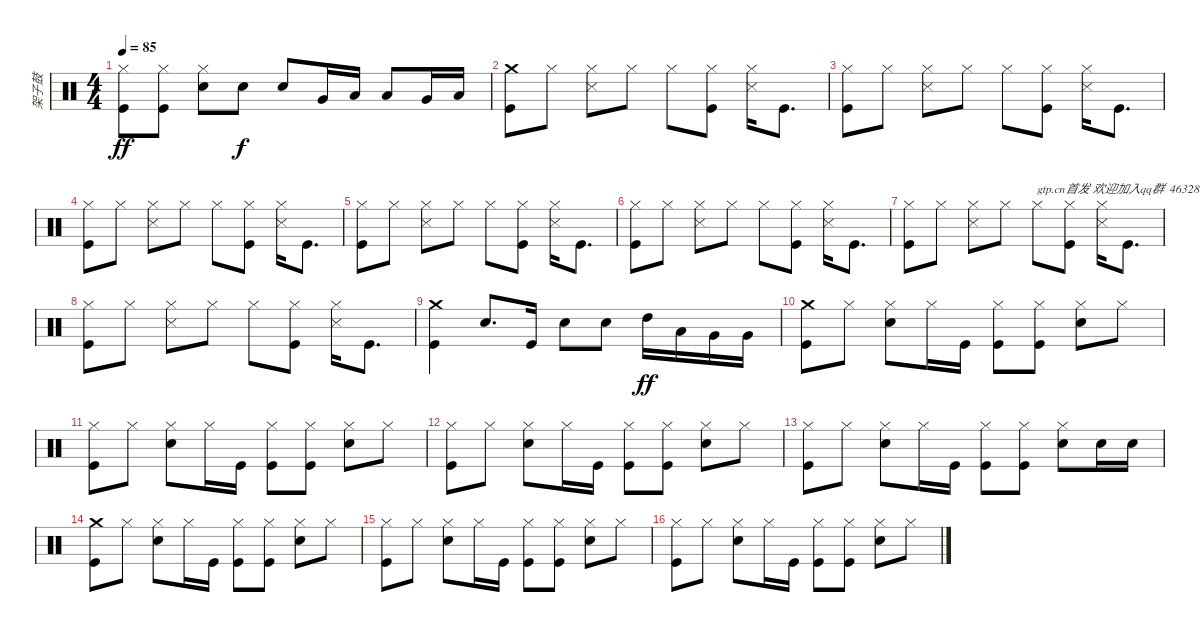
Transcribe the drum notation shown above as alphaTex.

\track ("架子鼓" "架子鼓") {instrument percussion}
\staff {score}
\articulation defaults
\ts (4 4)
\tempo 85
\clef neutral
\ks c
("Hi-Hat (closed)" "Kick (hit)").8{dy ff} ("Hi-Hat (closed)" "Kick (hit)").8 ("Hi-Hat (closed)" "Electric Snare (hit)").8 "Electric Snare (hit)".8{dy f} "Electric Snare (hit)".8 "Very Low Tom (hit)".16 "Low Floor Tom (hit)".16 "Low Tom (hit)".8 "Very Low Tom (hit)".16 "Low Floor Tom (hit)".16 |
("Crash medium (hit)" "Kick (hit)").8 "Hi-Hat (closed)".8 ("Hi-Hat (closed)" "Snare (side stick) 3").8 "Hi-Hat (closed)".8 "Hi-Hat (closed)".8 ("Hi-Hat (closed)" "Kick (hit)").8 ("Hi-Hat (closed)" "Snare (side stick) 3").16 "Kick (hit)".8{d} |
("Hi-Hat (closed)" "Kick (hit)").8 "Hi-Hat (closed)".8 ("Hi-Hat (closed)" "Snare (side stick) 3").8 "Hi-Hat (closed)".8 "Hi-Hat (closed)".8 ("Hi-Hat (closed)" "Kick (hit)").8 ("Hi-Hat (closed)" "Snare (side stick) 3").16 "Kick (hit)".8{d} |
("Hi-Hat (closed)" "Kick (hit)").8 "Hi-Hat (closed)".8 ("Hi-Hat (closed)" "Snare (side stick) 3").8 "Hi-Hat (closed)".8 "Hi-Hat (closed)".8 ("Hi-Hat (closed)" "Kick (hit)").8 ("Hi-Hat (closed)" "Snare (side stick) 3").16 "Kick (hit)".8{d} |
("Hi-Hat (closed)" "Kick (hit)").8 "Hi-Hat (closed)".8 ("Hi-Hat (closed)" "Snare (side stick) 3").8 "Hi-Hat (closed)".8 "Hi-Hat (closed)".8 ("Hi-Hat (closed)" "Kick (hit)").8 ("Hi-Hat (closed)" "Snare (side stick) 3").16 "Kick (hit)".8{d} |
("Hi-Hat (closed)" "Kick (hit)").8 "Hi-Hat (closed)".8 ("Hi-Hat (closed)" "Snare (side stick) 3").8 "Hi-Hat (closed)".8 "Hi-Hat (closed)".8 ("Hi-Hat (closed)" "Kick (hit)").8 ("Hi-Hat (closed)" "Snare (side stick) 3").16 "Kick (hit)".8{d} |
("Hi-Hat (closed)" "Kick (hit)").8 "Hi-Hat (closed)".8 ("Hi-Hat (closed)" "Snare (side stick) 3").8 "Hi-Hat (closed)".8 "Hi-Hat (closed)".8{txt "gtp.cn首发 欢迎加入qq群  463285836"} ("Hi-Hat (closed)" "Kick (hit)").8 ("Hi-Hat (closed)" "Snare (side stick) 3").16 "Kick (hit)".8{d} |
("Hi-Hat (closed)" "Kick (hit)").8 "Hi-Hat (closed)".8 ("Hi-Hat (closed)" "Snare (side stick) 3").8 "Hi-Hat (closed)".8 "Hi-Hat (closed)".8 ("Hi-Hat (closed)" "Kick (hit)").8 ("Hi-Hat (closed)" "Snare (side stick) 3").16 "Kick (hit)".8{d} |
("Crash medium (hit)" "Kick (hit)").4 "Electric Snare (hit)".8{d} "Kick (hit)".16 "Electric Snare (hit)".8 "Electric Snare (hit)".8 "High Tom (hit)".16{dy ff} "Low Tom (hit)".16 "Very Low Tom (hit)".16 "Very Low Tom (hit)".16 |
("Crash medium (hit)" "Kick (hit)").8 "Hi-Hat (closed)".8 ("Hi-Hat (closed)" "Electric Snare (hit)").8 "Hi-Hat (closed)".16 "Kick (hit)".16 ("Hi-Hat (closed)" "Kick (hit)").8 ("Hi-Hat (closed)" "Kick (hit)").8 ("Hi-Hat (closed)" "Electric Snare (hit)").8 "Hi-Hat (closed)".8 |
("Hi-Hat (closed)" "Kick (hit)").8 "Hi-Hat (closed)".8 ("Hi-Hat (closed)" "Electric Snare (hit)").8 "Hi-Hat (closed)".16 "Kick (hit)".16 ("Hi-Hat (closed)" "Kick (hit)").8 ("Hi-Hat (closed)" "Kick (hit)").8 ("Hi-Hat (closed)" "Electric Snare (hit)").8 "Hi-Hat (closed)".8 |
("Hi-Hat (closed)" "Kick (hit)").8 "Hi-Hat (closed)".8 ("Hi-Hat (closed)" "Electric Snare (hit)").8 "Hi-Hat (closed)".16 "Kick (hit)".16 ("Hi-Hat (closed)" "Kick (hit)").8 ("Hi-Hat (closed)" "Kick (hit)").8 ("Hi-Hat (closed)" "Electric Snare (hit)").8 "Hi-Hat (closed)".8 |
("Hi-Hat (closed)" "Kick (hit)").8 "Hi-Hat (closed)".8 ("Hi-Hat (closed)" "Electric Snare (hit)").8 "Hi-Hat (closed)".16 "Kick (hit)".16 ("Hi-Hat (closed)" "Kick (hit)").8 ("Hi-Hat (closed)" "Kick (hit)").8 ("Hi-Hat (closed)" "Electric Snare (hit)").8 "Electric Snare (hit)".16 "Electric Snare (hit)".16 |
("Crash medium (hit)" "Kick (hit)").8 "Hi-Hat (closed)".8 ("Hi-Hat (closed)" "Electric Snare (hit)").8 "Hi-Hat (closed)".16 "Kick (hit)".16 ("Hi-Hat (closed)" "Kick (hit)").8 ("Hi-Hat (closed)" "Kick (hit)").8 ("Hi-Hat (closed)" "Electric Snare (hit)").8 "Hi-Hat (closed)".8 |
("Hi-Hat (closed)" "Kick (hit)").8 "Hi-Hat (closed)".8 ("Hi-Hat (closed)" "Electric Snare (hit)").8 "Hi-Hat (closed)".16 "Kick (hit)".16 ("Hi-Hat (closed)" "Kick (hit)").8 ("Hi-Hat (closed)" "Kick (hit)").8 ("Hi-Hat (closed)" "Electric Snare (hit)").8 "Hi-Hat (closed)".8 |
("Hi-Hat (closed)" "Kick (hit)").8 "Hi-Hat (closed)".8 ("Hi-Hat (closed)" "Electric Snare (hit)").8 "Hi-Hat (closed)".16 "Kick (hit)".16 ("Hi-Hat (closed)" "Kick (hit)").8 ("Hi-Hat (closed)" "Kick (hit)").8 ("Hi-Hat (closed)" "Electric Snare (hit)").8 "Hi-Hat (closed)".8
